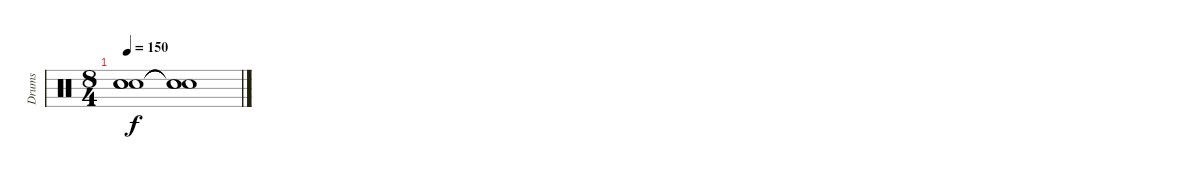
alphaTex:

\track ("Drums" "Drums") {instrument percussion}
\staff {score}
\articulation defaults
\ts (8 4)
\tempo 150
\clef neutral
\ks c
("Snare (hit)"{t} "Snare (hit)"{t} "Snare (hit)"{t}).1{dy f} ("Snare (hit)"{t} "Snare (hit)"{t} "Snare (hit)"{t}).1
